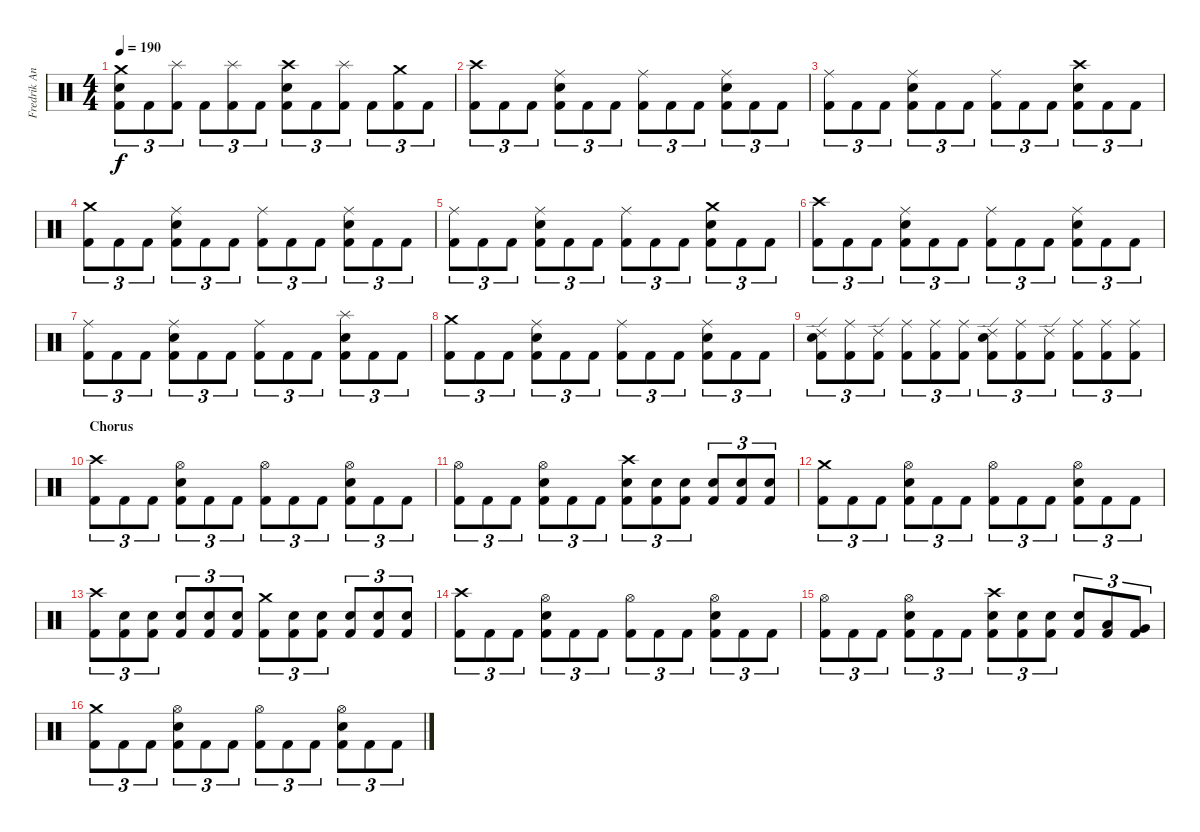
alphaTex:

\track ("Fredrik Andersson" "Fredrik An") {instrument percussion}
\staff {score}
\articulation defaults
\ts (4 4)
\tempo 190
\clef neutral
\ks c
("Crash medium (hit)" "Electric Snare (hit)" "Kick (hit) 2").8{tu (3 2) dy f} "Kick (hit) 2".8{tu (3 2)} ("Splash (hit)" "Kick (hit) 2").8{tu (3 2)} "Kick (hit) 2".8{tu (3 2)} ("Splash (hit)" "Kick (hit) 2").8{tu (3 2)} "Kick (hit) 2".8{tu (3 2)} ("Crash high (hit)" "Electric Snare (hit)" "Kick (hit) 2").8{tu (3 2)} "Kick (hit) 2".8{tu (3 2)} ("Splash (hit)" "Kick (hit) 2").8{tu (3 2)} "Kick (hit) 2".8{tu (3 2)} ("Crash medium (hit)" "Kick (hit) 2").8{tu (3 2)} "Kick (hit) 2".8{tu (3 2)} |
\section ("" "")
("Crash high (hit)" "Kick (hit) 2").8{tu (3 2)} "Kick (hit) 2".8{tu (3 2)} "Kick (hit) 2".8{tu (3 2)} ("Ride (middle)" "Electric Snare (hit)" "Kick (hit) 2").8{tu (3 2)} "Kick (hit) 2".8{tu (3 2)} "Kick (hit) 2".8{tu (3 2)} ("Ride (middle)" "Kick (hit) 2").8{tu (3 2)} "Kick (hit) 2".8{tu (3 2)} "Kick (hit) 2".8{tu (3 2)} ("Ride (middle)" "Electric Snare (hit)" "Kick (hit) 2").8{tu (3 2)} "Kick (hit) 2".8{tu (3 2)} "Kick (hit) 2".8{tu (3 2)} |
("Ride (middle)" "Kick (hit) 2").8{tu (3 2)} "Kick (hit) 2".8{tu (3 2)} "Kick (hit) 2".8{tu (3 2)} ("Ride (middle)" "Electric Snare (hit)" "Kick (hit) 2").8{tu (3 2)} "Kick (hit) 2".8{tu (3 2)} "Kick (hit) 2".8{tu (3 2)} ("Ride (middle)" "Kick (hit) 2").8{tu (3 2)} "Kick (hit) 2".8{tu (3 2)} "Kick (hit) 2".8{tu (3 2)} ("Crash high (hit)" "Electric Snare (hit)" "Kick (hit) 2").8{tu (3 2)} "Kick (hit) 2".8{tu (3 2)} "Kick (hit) 2".8{tu (3 2)} |
("Crash medium (hit)" "Kick (hit) 2").8{tu (3 2)} "Kick (hit) 2".8{tu (3 2)} "Kick (hit) 2".8{tu (3 2)} ("Ride (middle)" "Electric Snare (hit)" "Kick (hit) 2").8{tu (3 2)} "Kick (hit) 2".8{tu (3 2)} "Kick (hit) 2".8{tu (3 2)} ("Ride (middle)" "Kick (hit) 2").8{tu (3 2)} "Kick (hit) 2".8{tu (3 2)} "Kick (hit) 2".8{tu (3 2)} ("Ride (middle)" "Electric Snare (hit)" "Kick (hit) 2").8{tu (3 2)} "Kick (hit) 2".8{tu (3 2)} "Kick (hit) 2".8{tu (3 2)} |
("Ride (middle)" "Kick (hit) 2").8{tu (3 2)} "Kick (hit) 2".8{tu (3 2)} "Kick (hit) 2".8{tu (3 2)} ("Ride (middle)" "Electric Snare (hit)" "Kick (hit) 2").8{tu (3 2)} "Kick (hit) 2".8{tu (3 2)} "Kick (hit) 2".8{tu (3 2)} ("Ride (middle)" "Kick (hit) 2").8{tu (3 2)} "Kick (hit) 2".8{tu (3 2)} "Kick (hit) 2".8{tu (3 2)} ("Crash medium (hit)" "Electric Snare (hit)" "Kick (hit) 2").8{tu (3 2)} "Kick (hit) 2".8{tu (3 2)} "Kick (hit) 2".8{tu (3 2)} |
("Crash high (hit)" "Kick (hit) 2").8{tu (3 2)} "Kick (hit) 2".8{tu (3 2)} "Kick (hit) 2".8{tu (3 2)} ("Ride (middle)" "Electric Snare (hit)" "Kick (hit) 2").8{tu (3 2)} "Kick (hit) 2".8{tu (3 2)} "Kick (hit) 2".8{tu (3 2)} ("Ride (middle)" "Kick (hit) 2").8{tu (3 2)} "Kick (hit) 2".8{tu (3 2)} "Kick (hit) 2".8{tu (3 2)} ("Ride (middle)" "Electric Snare (hit)" "Kick (hit) 2").8{tu (3 2)} "Kick (hit) 2".8{tu (3 2)} "Kick (hit) 2".8{tu (3 2)} |
("Ride (middle)" "Kick (hit) 2").8{tu (3 2)} "Kick (hit) 2".8{tu (3 2)} "Kick (hit) 2".8{tu (3 2)} ("Ride (middle)" "Electric Snare (hit)" "Kick (hit) 2").8{tu (3 2)} "Kick (hit) 2".8{tu (3 2)} "Kick (hit) 2".8{tu (3 2)} ("Ride (middle)" "Kick (hit) 2").8{tu (3 2)} "Kick (hit) 2".8{tu (3 2)} "Kick (hit) 2".8{tu (3 2)} ("Splash (hit)" "Electric Snare (hit)" "Kick (hit) 2").8{tu (3 2)} "Kick (hit) 2".8{tu (3 2)} "Kick (hit) 2".8{tu (3 2)} |
("Crash medium (hit)" "Kick (hit) 2").8{tu (3 2)} "Kick (hit) 2".8{tu (3 2)} "Kick (hit) 2".8{tu (3 2)} ("Ride (middle)" "Electric Snare (hit)" "Kick (hit) 2").8{tu (3 2)} "Kick (hit) 2".8{tu (3 2)} "Kick (hit) 2".8{tu (3 2)} ("Ride (middle)" "Kick (hit) 2").8{tu (3 2)} "Kick (hit) 2".8{tu (3 2)} "Kick (hit) 2".8{tu (3 2)} ("Ride (middle)" "Electric Snare (hit)" "Kick (hit) 2").8{tu (3 2)} "Kick (hit) 2".8{tu (3 2)} "Kick (hit) 2".8{tu (3 2)} |
("Ride (edge) 2" "Electric Snare (hit)" "Kick (hit) 2").8{tu (3 2)} ("Ride (middle)" "Kick (hit) 2").8{tu (3 2)} ("Ride (edge) 2" "Kick (hit) 2").8{tu (3 2)} ("Ride (middle)" "Kick (hit) 2").8{tu (3 2)} ("Ride (middle)" "Kick (hit) 2").8{tu (3 2)} ("Ride (middle)" "Kick (hit) 2").8{tu (3 2)} ("Ride (edge) 2" "Electric Snare (hit)" "Kick (hit) 2").8{tu (3 2)} ("Ride (middle)" "Kick (hit) 2").8{tu (3 2)} ("Ride (edge) 2" "Kick (hit) 2").8{tu (3 2)} ("Ride (middle)" "Kick (hit) 2").8{tu (3 2)} ("Ride (middle)" "Kick (hit) 2").8{tu (3 2)} ("Ride (middle)" "Kick (hit) 2").8{tu (3 2)} |
\section ("" "Chorus")
("Crash high (hit)" "Kick (hit) 2").8{tu (3 2)} "Kick (hit) 2".8{tu (3 2)} "Kick (hit) 2".8{tu (3 2)} ("Hi-Hat (open)" "Electric Snare (hit)" "Kick (hit) 2").8{tu (3 2)} "Kick (hit) 2".8{tu (3 2)} "Kick (hit) 2".8{tu (3 2)} ("Hi-Hat (open)" "Kick (hit) 2").8{tu (3 2)} "Kick (hit) 2".8{tu (3 2)} "Kick (hit) 2".8{tu (3 2)} ("Hi-Hat (open)" "Electric Snare (hit)" "Kick (hit) 2").8{tu (3 2)} "Kick (hit) 2".8{tu (3 2)} "Kick (hit) 2".8{tu (3 2)} |
("Hi-Hat (open)" "Kick (hit) 2").8{tu (3 2)} "Kick (hit) 2".8{tu (3 2)} "Kick (hit) 2".8{tu (3 2)} ("Hi-Hat (open)" "Electric Snare (hit)" "Kick (hit) 2").8{tu (3 2)} "Kick (hit) 2".8{tu (3 2)} "Kick (hit) 2".8{tu (3 2)} ("Crash high (hit)" "Electric Snare (hit)" "Kick (hit) 2").8{tu (3 2)} ("Electric Snare (hit)" "Kick (hit) 2").8{tu (3 2)} ("Electric Snare (hit)" "Kick (hit) 2").8{tu (3 2)} ("Electric Snare (hit)" "Kick (hit) 2").8{tu (3 2)} ("Electric Snare (hit)" "Kick (hit) 2").8{tu (3 2)} ("Electric Snare (hit)" "Kick (hit) 2").8{tu (3 2)} |
("Crash medium (hit)" "Kick (hit) 2").8{tu (3 2)} "Kick (hit) 2".8{tu (3 2)} "Kick (hit) 2".8{tu (3 2)} ("Hi-Hat (open)" "Electric Snare (hit)" "Kick (hit) 2").8{tu (3 2)} "Kick (hit) 2".8{tu (3 2)} "Kick (hit) 2".8{tu (3 2)} ("Hi-Hat (open)" "Kick (hit) 2").8{tu (3 2)} "Kick (hit) 2".8{tu (3 2)} "Kick (hit) 2".8{tu (3 2)} ("Hi-Hat (open)" "Electric Snare (hit)" "Kick (hit) 2").8{tu (3 2)} "Kick (hit) 2".8{tu (3 2)} "Kick (hit) 2".8{tu (3 2)} |
("Crash high (hit)" "Kick (hit) 2").8{tu (3 2)} ("Electric Snare (hit)" "Kick (hit) 2").8{tu (3 2)} ("Electric Snare (hit)" "Kick (hit) 2").8{tu (3 2)} ("Electric Snare (hit)" "Kick (hit) 2").8{tu (3 2)} ("Electric Snare (hit)" "Kick (hit) 2").8{tu (3 2)} ("Electric Snare (hit)" "Kick (hit) 2").8{tu (3 2)} ("Crash medium (hit)" "Kick (hit) 2").8{tu (3 2)} ("Electric Snare (hit)" "Kick (hit) 2").8{tu (3 2)} ("Electric Snare (hit)" "Kick (hit) 2").8{tu (3 2)} ("Electric Snare (hit)" "Kick (hit) 2").8{tu (3 2)} ("Electric Snare (hit)" "Kick (hit) 2").8{tu (3 2)} ("Electric Snare (hit)" "Kick (hit) 2").8{tu (3 2)} |
("Crash high (hit)" "Kick (hit) 2").8{tu (3 2)} "Kick (hit) 2".8{tu (3 2)} "Kick (hit) 2".8{tu (3 2)} ("Hi-Hat (open)" "Electric Snare (hit)" "Kick (hit) 2").8{tu (3 2)} "Kick (hit) 2".8{tu (3 2)} "Kick (hit) 2".8{tu (3 2)} ("Hi-Hat (open)" "Kick (hit) 2").8{tu (3 2)} "Kick (hit) 2".8{tu (3 2)} "Kick (hit) 2".8{tu (3 2)} ("Hi-Hat (open)" "Electric Snare (hit)" "Kick (hit) 2").8{tu (3 2)} "Kick (hit) 2".8{tu (3 2)} "Kick (hit) 2".8{tu (3 2)} |
("Hi-Hat (open)" "Kick (hit) 2").8{tu (3 2)} "Kick (hit) 2".8{tu (3 2)} "Kick (hit) 2".8{tu (3 2)} ("Hi-Hat (open)" "Electric Snare (hit)" "Kick (hit) 2").8{tu (3 2)} "Kick (hit) 2".8{tu (3 2)} "Kick (hit) 2".8{tu (3 2)} ("Crash high (hit)" "Electric Snare (hit)" "Kick (hit) 2").8{tu (3 2)} ("Electric Snare (hit)" "Kick (hit) 2").8{tu (3 2)} ("Electric Snare (hit)" "Kick (hit) 2").8{tu (3 2)} ("Electric Snare (hit)" "Kick (hit) 2").8{tu (3 2)} ("Low Tom (hit)" "Kick (hit) 2").8{tu (3 2)} ("Very Low Tom (hit)" "Kick (hit) 2").8{tu (3 2)} |
("Crash medium (hit)" "Kick (hit) 2").8{tu (3 2)} "Kick (hit) 2".8{tu (3 2)} "Kick (hit) 2".8{tu (3 2)} ("Hi-Hat (open)" "Electric Snare (hit)" "Kick (hit) 2").8{tu (3 2)} "Kick (hit) 2".8{tu (3 2)} "Kick (hit) 2".8{tu (3 2)} ("Hi-Hat (open)" "Kick (hit) 2").8{tu (3 2)} "Kick (hit) 2".8{tu (3 2)} "Kick (hit) 2".8{tu (3 2)} ("Hi-Hat (open)" "Electric Snare (hit)" "Kick (hit) 2").8{tu (3 2)} "Kick (hit) 2".8{tu (3 2)} "Kick (hit) 2".8{tu (3 2)}
